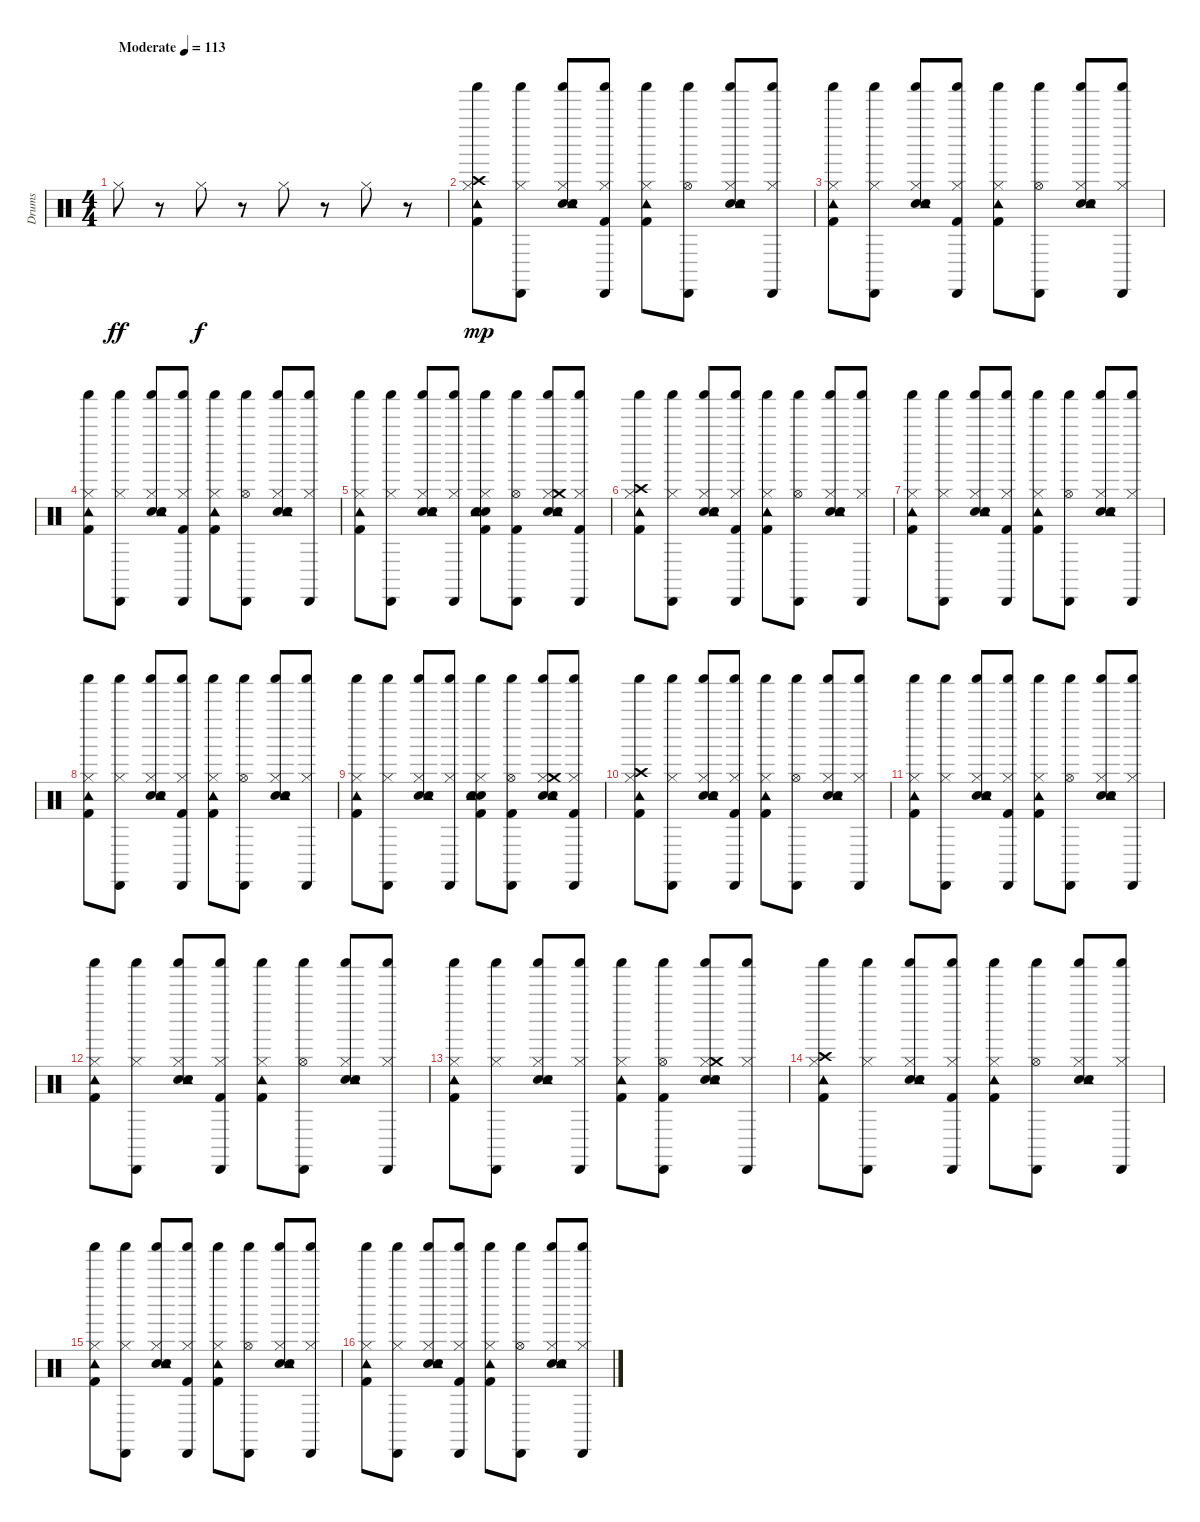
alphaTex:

\track ("Drums" "Drums") {instrument percussion}
\staff {score}
\articulation defaults
\ts (4 4)
\tempo (113 "Moderate")
\clef neutral
\ks c "Hi-Hat (closed)".8{dy ff}
r.8 "Hi-Hat (closed)".8{dy f} r.8 "Hi-Hat (closed)".8 r.8 "Hi-Hat (closed)".8 r.8 |
("Kick (hit) 2" "Hi-Hat (closed)" "Crash high (hit)" "Tambourine (hit)" "Shaker (hit)").8{dy mp} ("Hi-Hat (closed)" "Shaker (hit)" "Cabasa (hit)").8 ("Hand Clap (hit)" "Snare (hit) 2" "Hi-Hat (closed)" "Tambourine (hit)" "Shaker (hit)").8 ("Hi-Hat (closed)" "Shaker (hit)" "Kick (hit) 2" "Cabasa (hit)").8 ("Kick (hit) 2" "Hi-Hat (closed)" "Tambourine (hit)" "Shaker (hit)").8 ("Hi-Hat (open)" "Shaker (hit)" "Cabasa (hit)").8 ("Hand Clap (hit)" "Snare (hit) 2" "Hi-Hat (closed)" "Tambourine (hit)" "Shaker (hit)").8 ("Hi-Hat (closed)" "Shaker (hit)" "Cabasa (hit)").8 |
("Kick (hit) 2" "Hi-Hat (closed)" "Tambourine (hit)" "Shaker (hit)").8 ("Hi-Hat (closed)" "Shaker (hit)" "Cabasa (hit)").8 ("Hand Clap (hit)" "Snare (hit) 2" "Hi-Hat (closed)" "Tambourine (hit)" "Shaker (hit)").8 ("Hi-Hat (closed)" "Shaker (hit)" "Kick (hit) 2" "Cabasa (hit)").8 ("Kick (hit) 2" "Hi-Hat (closed)" "Tambourine (hit)" "Shaker (hit)").8 ("Hi-Hat (open)" "Shaker (hit)" "Cabasa (hit)").8 ("Hand Clap (hit)" "Snare (hit) 2" "Hi-Hat (closed)" "Tambourine (hit)" "Shaker (hit)").8 ("Hi-Hat (closed)" "Shaker (hit)" "Cabasa (hit)").8 |
("Kick (hit) 2" "Hi-Hat (closed)" "Tambourine (hit)" "Shaker (hit)").8 ("Hi-Hat (closed)" "Shaker (hit)" "Cabasa (hit)").8 ("Hand Clap (hit)" "Snare (hit) 2" "Hi-Hat (closed)" "Tambourine (hit)" "Shaker (hit)").8 ("Hi-Hat (closed)" "Shaker (hit)" "Kick (hit) 2" "Cabasa (hit)").8 ("Kick (hit) 2" "Hi-Hat (closed)" "Tambourine (hit)" "Shaker (hit)").8 ("Hi-Hat (open)" "Shaker (hit)" "Cabasa (hit)").8 ("Hand Clap (hit)" "Snare (hit) 2" "Hi-Hat (closed)" "Tambourine (hit)" "Shaker (hit)").8 ("Hi-Hat (closed)" "Shaker (hit)" "Cabasa (hit)").8 |
("Kick (hit) 2" "Hi-Hat (closed)" "Tambourine (hit)" "Shaker (hit)").8 ("Hi-Hat (closed)" "Shaker (hit)" "Cabasa (hit)").8 ("Hand Clap (hit)" "Snare (hit) 2" "Hi-Hat (closed)" "Tambourine (hit)" "Shaker (hit)").8 ("Hi-Hat (closed)" "Shaker (hit)" "Cabasa (hit)").8 ("Kick (hit) 2" "Hand Clap (hit)" "Snare (hit) 2" "Hi-Hat (closed)" "Tambourine (hit)" "Shaker (hit)").8 ("Kick (hit) 2" "Hi-Hat (open)" "Shaker (hit)" "Cabasa (hit)").8 ("Hand Clap (hit)" "Snare (hit) 2" "Hi-Hat (closed)" "Crash medium (hit)" "Tambourine (hit)" "Shaker (hit)").8 ("Kick (hit) 2" "Hi-Hat (closed)" "Shaker (hit)" "Cabasa (hit)").8 |
("Kick (hit) 2" "Hi-Hat (closed)" "Crash high (hit)" "Tambourine (hit)" "Shaker (hit)").8 ("Hi-Hat (closed)" "Shaker (hit)" "Cabasa (hit)").8 ("Hand Clap (hit)" "Snare (hit) 2" "Hi-Hat (closed)" "Tambourine (hit)" "Shaker (hit)").8 ("Hi-Hat (closed)" "Shaker (hit)" "Kick (hit) 2" "Cabasa (hit)").8 ("Kick (hit) 2" "Hi-Hat (closed)" "Tambourine (hit)" "Shaker (hit)").8 ("Hi-Hat (open)" "Shaker (hit)" "Cabasa (hit)").8 ("Hand Clap (hit)" "Snare (hit) 2" "Hi-Hat (closed)" "Tambourine (hit)" "Shaker (hit)").8 ("Hi-Hat (closed)" "Shaker (hit)" "Cabasa (hit)").8 |
("Kick (hit) 2" "Hi-Hat (closed)" "Tambourine (hit)" "Shaker (hit)").8 ("Hi-Hat (closed)" "Shaker (hit)" "Cabasa (hit)").8 ("Hand Clap (hit)" "Snare (hit) 2" "Hi-Hat (closed)" "Tambourine (hit)" "Shaker (hit)").8 ("Hi-Hat (closed)" "Shaker (hit)" "Kick (hit) 2" "Cabasa (hit)").8 ("Kick (hit) 2" "Hi-Hat (closed)" "Tambourine (hit)" "Shaker (hit)").8 ("Hi-Hat (open)" "Shaker (hit)" "Cabasa (hit)").8 ("Hand Clap (hit)" "Snare (hit) 2" "Hi-Hat (closed)" "Tambourine (hit)" "Shaker (hit)").8 ("Hi-Hat (closed)" "Shaker (hit)" "Cabasa (hit)").8 |
("Kick (hit) 2" "Hi-Hat (closed)" "Tambourine (hit)" "Shaker (hit)").8 ("Hi-Hat (closed)" "Shaker (hit)" "Cabasa (hit)").8 ("Hand Clap (hit)" "Snare (hit) 2" "Hi-Hat (closed)" "Tambourine (hit)" "Shaker (hit)").8 ("Hi-Hat (closed)" "Shaker (hit)" "Kick (hit) 2" "Cabasa (hit)").8 ("Kick (hit) 2" "Hi-Hat (closed)" "Tambourine (hit)" "Shaker (hit)").8 ("Hi-Hat (open)" "Shaker (hit)" "Cabasa (hit)").8 ("Hand Clap (hit)" "Snare (hit) 2" "Hi-Hat (closed)" "Tambourine (hit)" "Shaker (hit)").8 ("Hi-Hat (closed)" "Shaker (hit)" "Cabasa (hit)").8 |
("Kick (hit) 2" "Hi-Hat (closed)" "Tambourine (hit)" "Shaker (hit)").8 ("Hi-Hat (closed)" "Shaker (hit)" "Cabasa (hit)").8 ("Hand Clap (hit)" "Snare (hit) 2" "Hi-Hat (closed)" "Tambourine (hit)" "Shaker (hit)").8 ("Hi-Hat (closed)" "Shaker (hit)" "Cabasa (hit)").8 ("Kick (hit) 2" "Hand Clap (hit)" "Snare (hit) 2" "Hi-Hat (closed)" "Tambourine (hit)" "Shaker (hit)").8 ("Kick (hit) 2" "Hi-Hat (open)" "Shaker (hit)" "Cabasa (hit)").8 ("Hand Clap (hit)" "Snare (hit) 2" "Hi-Hat (closed)" "Crash medium (hit)" "Tambourine (hit)" "Shaker (hit)").8 ("Kick (hit) 2" "Hi-Hat (closed)" "Shaker (hit)" "Cabasa (hit)").8 |
("Kick (hit) 2" "Hi-Hat (closed)" "Crash high (hit)" "Tambourine (hit)" "Shaker (hit)").8 ("Hi-Hat (closed)" "Shaker (hit)" "Cabasa (hit)").8 ("Hand Clap (hit)" "Snare (hit) 2" "Hi-Hat (closed)" "Tambourine (hit)" "Shaker (hit)").8 ("Hi-Hat (closed)" "Shaker (hit)" "Kick (hit) 2" "Cabasa (hit)").8 ("Kick (hit) 2" "Hi-Hat (closed)" "Tambourine (hit)" "Shaker (hit)").8 ("Hi-Hat (open)" "Shaker (hit)" "Cabasa (hit)").8 ("Hand Clap (hit)" "Snare (hit) 2" "Hi-Hat (closed)" "Tambourine (hit)" "Shaker (hit)").8 ("Hi-Hat (closed)" "Shaker (hit)" "Cabasa (hit)").8 |
("Kick (hit) 2" "Hi-Hat (closed)" "Tambourine (hit)" "Shaker (hit)").8 ("Hi-Hat (closed)" "Shaker (hit)" "Cabasa (hit)").8 ("Hand Clap (hit)" "Snare (hit) 2" "Hi-Hat (closed)" "Tambourine (hit)" "Shaker (hit)").8 ("Hi-Hat (closed)" "Shaker (hit)" "Kick (hit) 2" "Cabasa (hit)").8 ("Kick (hit) 2" "Hi-Hat (closed)" "Tambourine (hit)" "Shaker (hit)").8 ("Hi-Hat (open)" "Shaker (hit)" "Cabasa (hit)").8 ("Hand Clap (hit)" "Snare (hit) 2" "Hi-Hat (closed)" "Tambourine (hit)" "Shaker (hit)").8 ("Hi-Hat (closed)" "Shaker (hit)" "Cabasa (hit)").8 |
("Kick (hit) 2" "Hi-Hat (closed)" "Tambourine (hit)" "Shaker (hit)").8 ("Hi-Hat (closed)" "Shaker (hit)" "Cabasa (hit)").8 ("Hand Clap (hit)" "Snare (hit) 2" "Hi-Hat (closed)" "Tambourine (hit)" "Shaker (hit)").8 ("Hi-Hat (closed)" "Shaker (hit)" "Kick (hit) 2" "Cabasa (hit)").8 ("Kick (hit) 2" "Hi-Hat (closed)" "Tambourine (hit)" "Shaker (hit)").8 ("Hi-Hat (open)" "Shaker (hit)" "Cabasa (hit)").8 ("Hand Clap (hit)" "Snare (hit) 2" "Hi-Hat (closed)" "Tambourine (hit)" "Shaker (hit)").8 ("Hi-Hat (closed)" "Shaker (hit)" "Cabasa (hit)").8 |
("Kick (hit) 2" "Hi-Hat (closed)" "Tambourine (hit)" "Shaker (hit)").8 ("Hi-Hat (closed)" "Shaker (hit)" "Cabasa (hit)").8 ("Hand Clap (hit)" "Snare (hit) 2" "Hi-Hat (closed)" "Tambourine (hit)" "Shaker (hit)").8 ("Hi-Hat (closed)" "Shaker (hit)" "Cabasa (hit)").8 ("Kick (hit) 2" "Hi-Hat (closed)" "Tambourine (hit)" "Shaker (hit)").8 ("Kick (hit) 2" "Hi-Hat (open)" "Shaker (hit)" "Cabasa (hit)").8 ("Hand Clap (hit)" "Snare (hit) 2" "Hi-Hat (closed)" "Crash medium (hit)" "Tambourine (hit)" "Shaker (hit)").8 ("Hi-Hat (closed)" "Shaker (hit)" "Cabasa (hit)").8 |
("Kick (hit) 2" "Hi-Hat (closed)" "Crash high (hit)" "Tambourine (hit)" "Shaker (hit)").8 ("Hi-Hat (closed)" "Shaker (hit)" "Cabasa (hit)").8 ("Hand Clap (hit)" "Snare (hit) 2" "Hi-Hat (closed)" "Tambourine (hit)" "Shaker (hit)").8 ("Hi-Hat (closed)" "Shaker (hit)" "Kick (hit) 2" "Cabasa (hit)").8 ("Kick (hit) 2" "Hi-Hat (closed)" "Tambourine (hit)" "Shaker (hit)").8 ("Hi-Hat (open)" "Shaker (hit)" "Cabasa (hit)").8 ("Hand Clap (hit)" "Snare (hit) 2" "Hi-Hat (closed)" "Tambourine (hit)" "Shaker (hit)").8 ("Hi-Hat (closed)" "Shaker (hit)" "Cabasa (hit)").8 |
("Kick (hit) 2" "Hi-Hat (closed)" "Tambourine (hit)" "Shaker (hit)").8 ("Hi-Hat (closed)" "Shaker (hit)" "Cabasa (hit)").8 ("Hand Clap (hit)" "Snare (hit) 2" "Hi-Hat (closed)" "Tambourine (hit)" "Shaker (hit)").8 ("Hi-Hat (closed)" "Shaker (hit)" "Kick (hit) 2" "Cabasa (hit)").8 ("Kick (hit) 2" "Hi-Hat (closed)" "Tambourine (hit)" "Shaker (hit)").8 ("Hi-Hat (open)" "Shaker (hit)" "Cabasa (hit)").8 ("Hand Clap (hit)" "Snare (hit) 2" "Hi-Hat (closed)" "Tambourine (hit)" "Shaker (hit)").8 ("Hi-Hat (closed)" "Shaker (hit)" "Cabasa (hit)").8 |
("Kick (hit) 2" "Hi-Hat (closed)" "Tambourine (hit)" "Shaker (hit)").8 ("Hi-Hat (closed)" "Shaker (hit)" "Cabasa (hit)").8 ("Hand Clap (hit)" "Snare (hit) 2" "Hi-Hat (closed)" "Tambourine (hit)" "Shaker (hit)").8 ("Hi-Hat (closed)" "Shaker (hit)" "Kick (hit) 2" "Cabasa (hit)").8 ("Kick (hit) 2" "Hi-Hat (closed)" "Tambourine (hit)" "Shaker (hit)").8 ("Hi-Hat (open)" "Shaker (hit)" "Cabasa (hit)").8 ("Hand Clap (hit)" "Snare (hit) 2" "Hi-Hat (closed)" "Tambourine (hit)" "Shaker (hit)").8 ("Hi-Hat (closed)" "Shaker (hit)" "Cabasa (hit)").8
